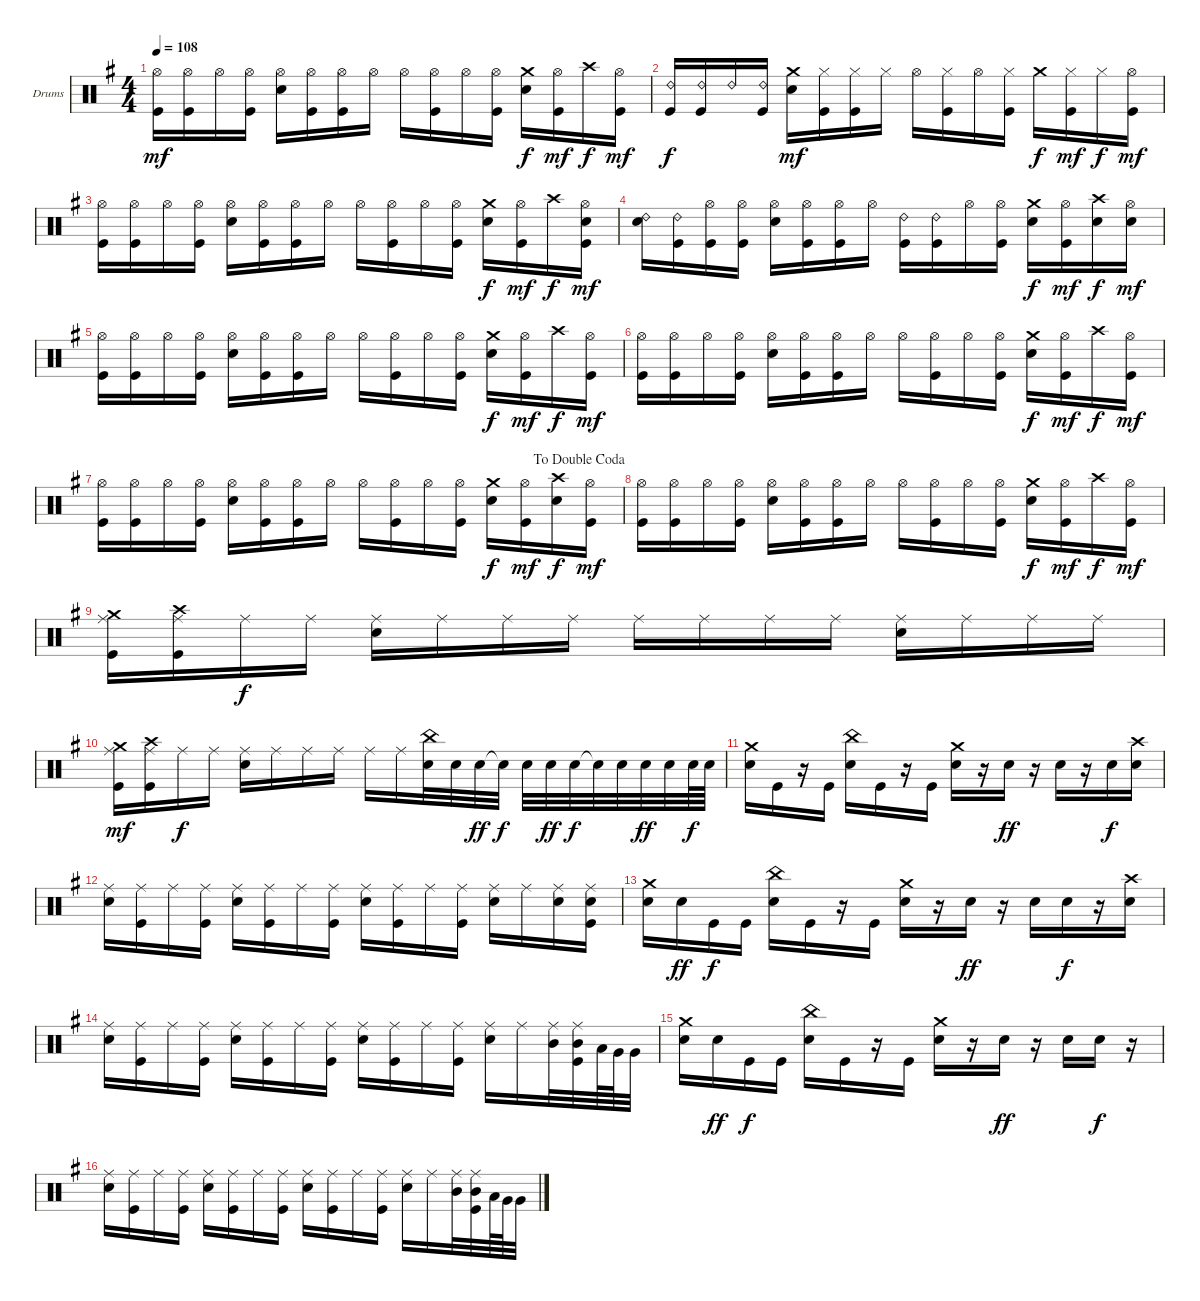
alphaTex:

\defaultSystemsLayout 4
\bracketExtendMode groupsimilarinstruments
\firstSystemTrackNameOrientation horizontal
\otherSystemsTrackNameOrientation horizontal
\track ("Drumkit" "Drums") {instrument percussion}
\staff {score}
\articulation defaults
\ts (4 4)
\tempo 108
\clef neutral
\scale
1.04288
\ks g
("Hi-Hat (open)" "Kick (hit)").16{dy mf} ("Hi-Hat (open)" "Kick (hit)").16 "Hi-Hat (open)".16 ("Hi-Hat (open)" "Kick (hit)").16 ("Hi-Hat (open)" "Snare (hit) 2").16 ("Hi-Hat (open)" "Kick (hit)").16 ("Hi-Hat (open)" "Kick (hit)").16 "Hi-Hat (open)".16 "Hi-Hat (open)".16 ("Hi-Hat (open)" "Kick (hit)").16 "Hi-Hat (open)".16 ("Hi-Hat (open)" "Kick (hit)").16 ("Crash medium (hit)" "Snare (hit) 2").16{dy f} ("Hi-Hat (open)" "Kick (hit)").16{dy mf} "Crash high (hit)".16{dy f} ("Hi-Hat (open)" "Kick (hit)").16{dy mf} |
\scale
0.957125 ("Ride (bell) 2" "Kick (hit)").16{dy f} ("Ride (bell) 2" "Kick (hit)").16 "Ride (bell) 2".16 ("Ride (bell) 2" "Kick (hit)").16 ("Crash medium (hit)" "Snare (hit) 2").16{dy mf} ("Hi-Hat (closed)" "Kick (hit)").16 ("Hi-Hat (closed)" "Kick (hit)").16 "Hi-Hat (closed)".16 "Hi-Hat (open)".16 ("Hi-Hat (closed)" "Kick (hit)").16 "Hi-Hat (open)".16 ("Hi-Hat (closed)" "Kick (hit)").16 "Crash medium (hit)".16{dy f} ("Hi-Hat (closed)" "Kick (hit)").16{dy mf} "Hi-Hat (closed)".16{dy f} ("Hi-Hat (open)" "Kick (hit)").16{dy mf} |
\scale
1.04288 ("Hi-Hat (open)" "Kick (hit)").16 ("Hi-Hat (open)" "Kick (hit)").16 "Hi-Hat (open)".16 ("Hi-Hat (open)" "Kick (hit)").16 ("Hi-Hat (open)" "Snare (hit) 2").16 ("Hi-Hat (open)" "Kick (hit)").16 ("Hi-Hat (open)" "Kick (hit)").16 "Hi-Hat (open)".16 "Hi-Hat (open)".16 ("Hi-Hat (open)" "Kick (hit)").16 "Hi-Hat (open)".16 ("Hi-Hat (open)" "Kick (hit)").16 ("Crash medium (hit)" "Snare (hit) 2").16{dy f} ("Hi-Hat (open)" "Kick (hit)").16{dy mf} "Crash high (hit)".16{dy f} ("Hi-Hat (open)" "Snare (hit) 2" "Kick (hit)").16{dy mf} |
\scale
0.957125 ("Ride (bell) 2" "Snare (hit) 2").16 ("Ride (bell) 2" "Kick (hit)").16 ("Hi-Hat (open)" "Kick (hit)").16 ("Hi-Hat (open)" "Kick (hit)").16 ("Hi-Hat (open)" "Snare (hit) 2").16 ("Hi-Hat (open)" "Kick (hit)").16 ("Hi-Hat (open)" "Kick (hit)").16 "Hi-Hat (open)".16 ("Ride (bell) 2" "Kick (hit)").16 ("Ride (bell) 2" "Kick (hit)").16 "Hi-Hat (open)".16 ("Hi-Hat (open)" "Kick (hit)").16 ("Crash medium (hit)" "Snare (hit) 2").16{dy f} ("Hi-Hat (open)" "Kick (hit)").16{dy mf} ("Crash high (hit)" "Snare (hit) 2").16{dy f} ("Hi-Hat (open)" "Snare (hit) 2").16{dy mf} |
\scale
1.04288 ("Hi-Hat (open)" "Kick (hit)").16 ("Hi-Hat (open)" "Kick (hit)").16 "Hi-Hat (open)".16 ("Hi-Hat (open)" "Kick (hit)").16 ("Hi-Hat (open)" "Snare (hit) 2").16 ("Hi-Hat (open)" "Kick (hit)").16 ("Hi-Hat (open)" "Kick (hit)").16 "Hi-Hat (open)".16 "Hi-Hat (open)".16 ("Hi-Hat (open)" "Kick (hit)").16 "Hi-Hat (open)".16 ("Hi-Hat (open)" "Kick (hit)").16 ("Crash medium (hit)" "Snare (hit) 2").16{dy f} ("Hi-Hat (open)" "Kick (hit)").16{dy mf} "Crash high (hit)".16{dy f} ("Hi-Hat (open)" "Kick (hit)").16{dy mf} |
\scale
0.957125 ("Hi-Hat (open)" "Kick (hit)").16 ("Hi-Hat (open)" "Kick (hit)").16 "Hi-Hat (open)".16 ("Hi-Hat (open)" "Kick (hit)").16 ("Hi-Hat (open)" "Snare (hit) 2").16 ("Hi-Hat (open)" "Kick (hit)").16 ("Hi-Hat (open)" "Kick (hit)").16 "Hi-Hat (open)".16 "Hi-Hat (open)".16 ("Hi-Hat (open)" "Kick (hit)").16 "Hi-Hat (open)".16 ("Hi-Hat (open)" "Kick (hit)").16 ("Crash medium (hit)" "Snare (hit) 2").16{dy f} ("Hi-Hat (open)" "Kick (hit)").16{dy mf} "Crash high (hit)".16{dy f} ("Hi-Hat (open)" "Kick (hit)").16{dy mf} |
\jump dadoublecoda
\scale
1.04288 ("Hi-Hat (open)" "Kick (hit)").16 ("Hi-Hat (open)" "Kick (hit)").16 "Hi-Hat (open)".16 ("Hi-Hat (open)" "Kick (hit)").16 ("Hi-Hat (open)" "Snare (hit) 2").16 ("Hi-Hat (open)" "Kick (hit)").16 ("Hi-Hat (open)" "Kick (hit)").16 "Hi-Hat (open)".16 "Hi-Hat (open)".16 ("Hi-Hat (open)" "Kick (hit)").16 "Hi-Hat (open)".16 ("Hi-Hat (open)" "Kick (hit)").16 ("Crash medium (hit)" "Snare (hit) 2").16{dy f} ("Hi-Hat (open)" "Kick (hit)").16{dy mf} ("Crash high (hit)" "Snare (hit) 2").16{dy f} ("Hi-Hat (open)" "Kick (hit)").16{dy mf} |
\scale
0.957125 ("Hi-Hat (open)" "Kick (hit)").16 ("Hi-Hat (open)" "Kick (hit)").16 "Hi-Hat (open)".16 ("Hi-Hat (open)" "Kick (hit)").16 ("Hi-Hat (open)" "Snare (hit) 2").16 ("Hi-Hat (open)" "Kick (hit)").16 ("Hi-Hat (open)" "Kick (hit)").16 "Hi-Hat (open)".16 "Hi-Hat (open)".16 ("Hi-Hat (open)" "Kick (hit)").16 "Hi-Hat (open)".16 ("Hi-Hat (open)" "Kick (hit)").16 ("Crash medium (hit)" "Snare (hit) 2").16{dy f} ("Hi-Hat (open)" "Kick (hit)").16{dy mf} "Crash high (hit)".16{dy f} ("Hi-Hat (open)" "Kick (hit)").16{dy mf} |
\scale
1.04288 ("Crash medium (hit)" "Ride (middle)" "Kick (hit)").16 ("Crash high (hit)" "Ride (middle)" "Kick (hit)").16 "Ride (middle)".16{dy f} "Ride (middle)".16 ("Ride (middle)" "Snare (hit) 2").16 "Ride (middle)".16 "Ride (middle)".16 "Ride (middle)".16 "Ride (middle)".16 "Ride (middle)".16 "Ride (middle)".16 "Ride (middle)".16 ("Ride (middle)" "Snare (hit) 2").16 "Ride (middle)".16 "Ride (middle)".16 "Ride (middle)".16 |
\scale
0.957125 ("Crash medium (hit)" "Ride (middle)" "Kick (hit)").16{dy mf} ("Crash high (hit)" "Ride (middle)" "Kick (hit)").16 "Ride (middle)".16{dy f} "Ride (middle)".16 ("Ride (middle)" "Snare (hit) 2").16 "Ride (middle)".16 "Ride (middle)".16 "Ride (middle)".16 "Ride (middle)".16 "Ride (middle)".16 ("China (hit)" "Snare (hit) 2").32 "Snare (hit) 2".32 "Snare (hit) 2".32{dy ff} "Snare (hit) 2"{t}.32{dy f} "Snare (hit) 2".32 "Snare (hit) 2".32{dy ff} "Snare (hit) 2".32{dy f} "Snare (hit) 2"{t}.32 "Snare (hit) 2".32 "Snare (hit) 2".32{dy ff} "Snare (hit) 2".32 "Snare (hit) 2".64{dy f} "Snare (hit) 2".64 |
\scale
1.04288 ("Crash medium (hit)" "Snare (hit) 2").16 "Kick (hit)".16 r.16 "Kick (hit)".16 ("China (hit)" "Snare (hit) 2").16 "Kick (hit)".16 r.16 "Kick (hit)".16 ("Crash medium (hit)" "Snare (hit) 2").16 r.16 "Snare (hit) 2".16{dy ff} r.16 "Snare (hit) 2".16 r.16 "Snare (hit) 2".16{dy f} ("Crash high (hit)" "Snare (hit) 2").16 |
\scale
0.957125 ("Ride (middle)" "Snare (hit) 2").16 ("Ride (middle)" "Kick (hit)").16 "Ride (middle)".16 ("Ride (middle)" "Kick (hit)").16 ("Ride (middle)" "Snare (hit) 2").16 ("Ride (middle)" "Kick (hit)").16 "Ride (middle)".16 ("Ride (middle)" "Kick (hit)").16 ("Ride (middle)" "Snare (hit) 2").16 ("Ride (middle)" "Kick (hit)").16 "Ride (middle)".16 ("Ride (middle)" "Kick (hit)").16 ("Ride (middle)" "Snare (hit) 2").16 "Ride (middle)".16 ("Ride (middle)" "Snare (hit) 2").16 ("Ride (middle)" "Snare (hit) 2" "Kick (hit)").16 |
\scale
1.04288 ("Crash medium (hit)" "Snare (hit) 2").16 "Snare (hit) 2".16{dy ff} "Kick (hit)".16{dy f} "Kick (hit)".16 ("China (hit)" "Snare (hit) 2").16 "Kick (hit)".16 r.16 "Kick (hit)".16 ("Crash medium (hit)" "Snare (hit) 2").16 r.16 "Snare (hit) 2".16{dy ff} r.16 "Snare (hit) 2".16 "Snare (hit) 2".16{dy f} r.16 ("Crash high (hit)" "Snare (hit) 2").16 |
\scale
0.957125 ("Ride (middle)" "Snare (hit) 2").16 ("Ride (middle)" "Kick (hit)").16 "Ride (middle)".16 ("Ride (middle)" "Kick (hit)").16 ("Ride (middle)" "Snare (hit) 2").16 ("Ride (middle)" "Kick (hit)").16 "Ride (middle)".16 ("Ride (middle)" "Kick (hit)").16 ("Ride (middle)" "Snare (hit) 2").16 ("Ride (middle)" "Kick (hit)").16 "Ride (middle)".16 ("Ride (middle)" "Kick (hit)").16 ("Ride (middle)" "Snare (hit) 2").16 "Ride (middle)".16 ("Mid Tom (hit)" "Ride (middle)").32 ("Mid Tom (hit)" "Ride (middle)" "Kick (hit)").32 "Low Tom (hit)".64 "Very Low Tom (hit)".64 "Very Low Tom (hit)".32 |
\scale
1.04288 ("Crash medium (hit)" "Snare (hit) 2").16 "Snare (hit) 2".16{dy ff} "Kick (hit)".16{dy f} "Kick (hit)".16 ("China (hit)" "Snare (hit) 2").16 "Kick (hit)".16 r.16 "Kick (hit)".16 ("Crash medium (hit)" "Snare (hit) 2").16 r.16 "Snare (hit) 2".16{dy ff} r.16 "Snare (hit) 2".16 "Snare (hit) 2".16{dy f} r.16 |
\scale
0.957125 ("Ride (middle)" "Snare (hit) 2").16 ("Ride (middle)" "Kick (hit)").16 "Ride (middle)".16 ("Ride (middle)" "Kick (hit)").16 ("Ride (middle)" "Snare (hit) 2").16 ("Ride (middle)" "Kick (hit)").16 "Ride (middle)".16 ("Ride (middle)" "Kick (hit)").16 ("Ride (middle)" "Snare (hit) 2").16 ("Ride (middle)" "Kick (hit)").16 "Ride (middle)".16 ("Ride (middle)" "Kick (hit)").16 ("Ride (middle)" "Snare (hit) 2").16 "Ride (middle)".16 ("Mid Tom (hit)" "Ride (middle)").32 ("Mid Tom (hit)" "Ride (middle)" "Kick (hit)").32 "Low Tom (hit)".64 "Very Low Tom (hit)".64 "Very Low Tom (hit)".32
